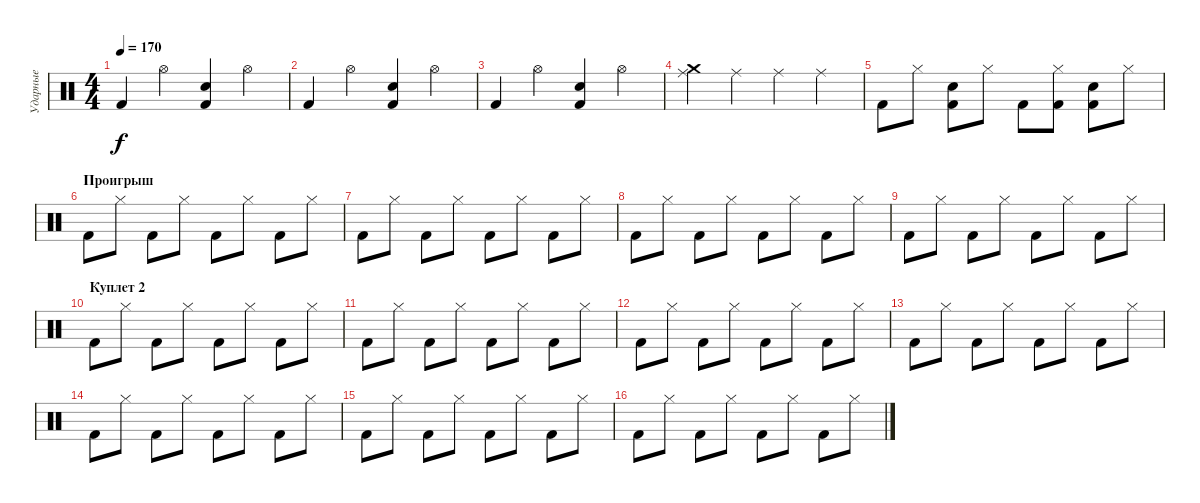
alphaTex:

\track ("Ударные" "Ударные") {instrument percussion}
\staff {score}
\articulation defaults
\ts (4 4)
\tempo 170
\clef neutral
\ks c "Kick (hit) 2".4{dy f} "Hi-Hat (open)".4
("Snare (hit) 2" "Kick (hit) 2").4 "Hi-Hat (open)".4 |
"Kick (hit) 2".4 "Hi-Hat (open)".4 ("Snare (hit) 2" "Kick (hit) 2").4 "Hi-Hat (open)".4 |
"Kick (hit) 2".4 "Hi-Hat (open)".4 ("Snare (hit) 2" "Kick (hit) 2").4 "Hi-Hat (open)".4 |
("Ride (middle)" "Crash medium (hit)").4 "Ride (middle)".4 "Ride (middle)".4 "Ride (middle)".4 |
"Kick (hit) 2".8 "Hi-Hat (closed)".8 ("Kick (hit) 2" "Snare (hit) 2").8 "Hi-Hat (closed)".8 "Kick (hit) 2".8 ("Hi-Hat (closed)" "Kick (hit) 2").8 ("Kick (hit) 2" "Snare (hit) 2").8 "Hi-Hat (closed)".8 |
\section ("" "Проигрыш")
"Kick (hit) 2".8 "Hi-Hat (closed)".8 "Kick (hit) 2".8 "Hi-Hat (closed)".8 "Kick (hit) 2".8 "Hi-Hat (closed)".8 "Kick (hit) 2".8 "Hi-Hat (closed)".8 |
"Kick (hit) 2".8 "Hi-Hat (closed)".8 "Kick (hit) 2".8 "Hi-Hat (closed)".8 "Kick (hit) 2".8 "Hi-Hat (closed)".8 "Kick (hit) 2".8 "Hi-Hat (closed)".8 |
"Kick (hit) 2".8 "Hi-Hat (closed)".8 "Kick (hit) 2".8 "Hi-Hat (closed)".8 "Kick (hit) 2".8 "Hi-Hat (closed)".8 "Kick (hit) 2".8 "Hi-Hat (closed)".8 |
"Kick (hit) 2".8 "Hi-Hat (closed)".8 "Kick (hit) 2".8 "Hi-Hat (closed)".8 "Kick (hit) 2".8 "Hi-Hat (closed)".8 "Kick (hit) 2".8 "Hi-Hat (closed)".8 |
\section ("" "Куплет 2")
"Kick (hit) 2".8 "Hi-Hat (closed)".8 "Kick (hit) 2".8 "Hi-Hat (closed)".8 "Kick (hit) 2".8 "Hi-Hat (closed)".8 "Kick (hit) 2".8 "Hi-Hat (closed)".8 |
"Kick (hit) 2".8 "Hi-Hat (closed)".8 "Kick (hit) 2".8 "Hi-Hat (closed)".8 "Kick (hit) 2".8 "Hi-Hat (closed)".8 "Kick (hit) 2".8 "Hi-Hat (closed)".8 |
"Kick (hit) 2".8 "Hi-Hat (closed)".8 "Kick (hit) 2".8 "Hi-Hat (closed)".8 "Kick (hit) 2".8 "Hi-Hat (closed)".8 "Kick (hit) 2".8 "Hi-Hat (closed)".8 |
"Kick (hit) 2".8 "Hi-Hat (closed)".8 "Kick (hit) 2".8 "Hi-Hat (closed)".8 "Kick (hit) 2".8 "Hi-Hat (closed)".8 "Kick (hit) 2".8 "Hi-Hat (closed)".8 |
"Kick (hit) 2".8 "Hi-Hat (closed)".8 "Kick (hit) 2".8 "Hi-Hat (closed)".8 "Kick (hit) 2".8 "Hi-Hat (closed)".8 "Kick (hit) 2".8 "Hi-Hat (closed)".8 |
"Kick (hit) 2".8 "Hi-Hat (closed)".8 "Kick (hit) 2".8 "Hi-Hat (closed)".8 "Kick (hit) 2".8 "Hi-Hat (closed)".8 "Kick (hit) 2".8 "Hi-Hat (closed)".8 |
"Kick (hit) 2".8 "Hi-Hat (closed)".8 "Kick (hit) 2".8 "Hi-Hat (closed)".8 "Kick (hit) 2".8 "Hi-Hat (closed)".8 "Kick (hit) 2".8 "Hi-Hat (closed)".8
